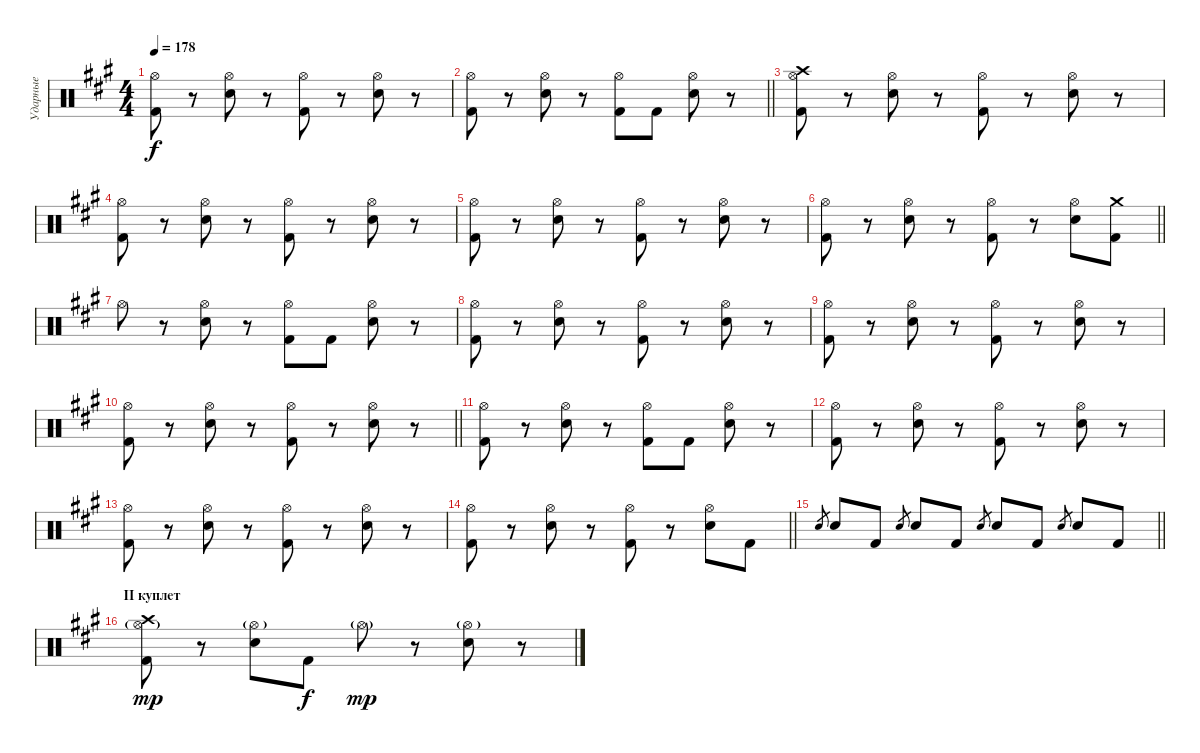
\track ("Ударные" "Ударные") {instrument percussion}
\staff {score}
\articulation defaults
\ts (4 4)
\tempo 178
\clef neutral
\ks f#minor
("Kick (hit) 2" "Hi-Hat (open)").8{dy f} r.8 ("Electric Snare (hit)" "Hi-Hat (open)").8 r.8 ("Kick (hit) 2" "Hi-Hat (open)").8 r.8 ("Electric Snare (hit)" "Hi-Hat (open)").8 r.8 |
\barLineRight lightlight
("Kick (hit) 2" "Hi-Hat (open)").8 r.8 ("Electric Snare (hit)" "Hi-Hat (open)").8 r.8 ("Kick (hit) 2" "Hi-Hat (open)").8 "Kick (hit) 2".8 ("Electric Snare (hit)" "Hi-Hat (open)").8 r.8 |
("Crash high (hit)" "Kick (hit) 2" "Hi-Hat (open)").8 r.8 ("Electric Snare (hit)" "Hi-Hat (open)").8 r.8 ("Kick (hit) 2" "Hi-Hat (open)").8 r.8 ("Electric Snare (hit)" "Hi-Hat (open)").8 r.8 |
("Kick (hit) 2" "Hi-Hat (open)").8 r.8 ("Electric Snare (hit)" "Hi-Hat (open)").8 r.8 ("Kick (hit) 2" "Hi-Hat (open)").8 r.8 ("Electric Snare (hit)" "Hi-Hat (open)").8 r.8 |
("Kick (hit) 2" "Hi-Hat (open)").8 r.8 ("Electric Snare (hit)" "Hi-Hat (open)").8 r.8 ("Kick (hit) 2" "Hi-Hat (open)").8 r.8 ("Electric Snare (hit)" "Hi-Hat (open)").8 r.8 |
\barLineRight lightlight
("Kick (hit) 2" "Hi-Hat (open)").8 r.8 ("Electric Snare (hit)" "Hi-Hat (open)").8 r.8 ("Kick (hit) 2" "Hi-Hat (open)").8 r.8 ("Electric Snare (hit)" "Hi-Hat (open)").8 ("Crash medium (hit)" "Kick (hit) 2").8 |
"Hi-Hat (open)".8 r.8 ("Electric Snare (hit)" "Hi-Hat (open)").8 r.8 ("Kick (hit) 2" "Hi-Hat (open)").8 "Kick (hit) 2".8 ("Electric Snare (hit)" "Hi-Hat (open)").8 r.8 |
("Kick (hit) 2" "Hi-Hat (open)").8 r.8 ("Electric Snare (hit)" "Hi-Hat (open)").8 r.8 ("Kick (hit) 2" "Hi-Hat (open)").8 r.8 ("Electric Snare (hit)" "Hi-Hat (open)").8 r.8 |
("Kick (hit) 2" "Hi-Hat (open)").8 r.8 ("Electric Snare (hit)" "Hi-Hat (open)").8 r.8 ("Kick (hit) 2" "Hi-Hat (open)").8 r.8 ("Electric Snare (hit)" "Hi-Hat (open)").8 r.8 |
\barLineRight lightlight
("Kick (hit) 2" "Hi-Hat (open)").8 r.8 ("Electric Snare (hit)" "Hi-Hat (open)").8 r.8 ("Kick (hit) 2" "Hi-Hat (open)").8 r.8 ("Electric Snare (hit)" "Hi-Hat (open)").8 r.8 |
("Kick (hit) 2" "Hi-Hat (open)").8 r.8 ("Electric Snare (hit)" "Hi-Hat (open)").8 r.8 ("Kick (hit) 2" "Hi-Hat (open)").8 "Kick (hit) 2".8 ("Electric Snare (hit)" "Hi-Hat (open)").8 r.8 |
("Kick (hit) 2" "Hi-Hat (open)").8 r.8 ("Electric Snare (hit)" "Hi-Hat (open)").8 r.8 ("Kick (hit) 2" "Hi-Hat (open)").8 r.8 ("Electric Snare (hit)" "Hi-Hat (open)").8 r.8 |
("Kick (hit) 2" "Hi-Hat (open)").8 r.8 ("Electric Snare (hit)" "Hi-Hat (open)").8 r.8 ("Kick (hit) 2" "Hi-Hat (open)").8 r.8 ("Electric Snare (hit)" "Hi-Hat (open)").8 r.8 |
\barLineRight lightlight
("Kick (hit) 2" "Hi-Hat (open)").8 r.8 ("Electric Snare (hit)" "Hi-Hat (open)").8 r.8 ("Kick (hit) 2" "Hi-Hat (open)").8 r.8 ("Electric Snare (hit)" "Hi-Hat (open)").8 "Kick (hit) 2".8 |
\barLineRight lightlight "Electric Snare (hit)".8{gr} "Electric Snare (hit)".8 "Kick (hit) 2".8 "Electric Snare (hit)".8{gr} "Electric Snare (hit)".8 "Kick (hit) 2".8 "Electric Snare (hit)".8{gr} "Electric Snare (hit)".8 "Kick (hit) 2".8 "Electric Snare (hit)".8{gr} "Electric Snare (hit)".8 "Kick (hit) 2".8
|
\section ("" "II куплет")
("Crash high (hit)" "Kick (hit) 2" "Hi-Hat (open)"{g}).8{dy mp} r.8 ("Electric Snare (hit)" "Hi-Hat (open)"{g}).8 "Kick (hit) 2".8{dy f} "Hi-Hat (open)"{g}.8{dy mp} r.8 ("Electric Snare (hit)" "Hi-Hat (open)"{g}).8 r.8
